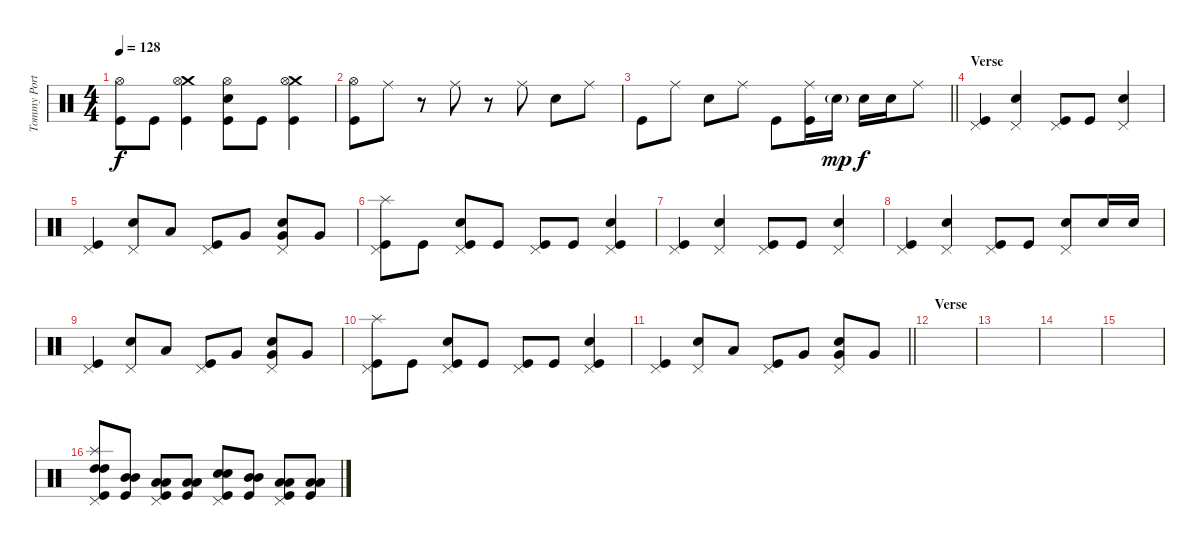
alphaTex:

\track ("Tommy Portimo - Drums" "Tommy Port") {instrument percussion}
\staff {score}
\articulation defaults
\ts (4 4)
\tempo 128
\clef neutral
\ks c
("Hi-Hat (open)" "Kick (hit)").8{dy f} "Kick (hit)".8 ("Crash medium (hit)" "Hi-Hat (open)" "Kick (hit)").4 ("Hi-Hat (open)" "Electric Snare (hit)" "Kick (hit)").8 "Kick (hit)".8 ("Crash medium (hit)" "Hi-Hat (open)" "Kick (hit)").4 |
("Hi-Hat (open)" "Kick (hit)").8 "Ride (middle)".8 r.8 "Ride (middle)".8 r.8 "Ride (middle)".8 "Electric Snare (hit)".8 "Ride (middle)".8 |
\barLineRight lightlight "Kick (hit)".8 "Ride (middle)".8 "Electric Snare (hit)".8 "Ride (middle)".8 "Kick (hit)".8
("Ride (middle)" "Kick (hit)").16 "Electric Snare (hit)"{g}.16{dy mp} "Electric Snare (hit)".16{dy f} "Electric Snare (hit)".16 "Ride (middle)".8 |
\section ("" "Verse")
("Pedal Hi-Hat (hit)" "Kick (hit)").4 ("Pedal Hi-Hat (hit)" "Electric Snare (hit)").4 ("Pedal Hi-Hat (hit)" "Kick (hit)").8 "Kick (hit)".8 ("Pedal Hi-Hat (hit)" "Electric Snare (hit)").4 |
("Pedal Hi-Hat (hit)" "Kick (hit)").4 ("Pedal Hi-Hat (hit)" "Electric Snare (hit)").8 "Low Tom (hit)".8 ("Pedal Hi-Hat (hit)" "Kick (hit)").8 "Very Low Tom (hit)".8 ("Pedal Hi-Hat (hit)" "Very Low Tom (hit)" "Electric Snare (hit)").8 "Very Low Tom (hit)".8 |
("Splash (hit)" "Pedal Hi-Hat (hit)" "Kick (hit)").8 "Kick (hit)".8 ("Pedal Hi-Hat (hit)" "Electric Snare (hit)" "Kick (hit)").8 "Kick (hit)".8 ("Pedal Hi-Hat (hit)" "Kick (hit)").8 "Kick (hit)".8 ("Pedal Hi-Hat (hit)" "Electric Snare (hit)" "Kick (hit)").4 |
("Pedal Hi-Hat (hit)" "Kick (hit)").4 ("Pedal Hi-Hat (hit)" "Electric Snare (hit)").4 ("Pedal Hi-Hat (hit)" "Kick (hit)").8 "Kick (hit)".8 ("Pedal Hi-Hat (hit)" "Electric Snare (hit)").4 |
("Pedal Hi-Hat (hit)" "Kick (hit)").4 ("Pedal Hi-Hat (hit)" "Electric Snare (hit)").4 ("Pedal Hi-Hat (hit)" "Kick (hit)").8 "Kick (hit)".8 ("Pedal Hi-Hat (hit)" "Electric Snare (hit)").8 "Electric Snare (hit)".16 "Electric Snare (hit)".16 |
("Pedal Hi-Hat (hit)" "Kick (hit)").4 ("Pedal Hi-Hat (hit)" "Electric Snare (hit)").8 "Low Tom (hit)".8 ("Pedal Hi-Hat (hit)" "Kick (hit)").8 "Very Low Tom (hit)".8 ("Pedal Hi-Hat (hit)" "Very Low Tom (hit)" "Electric Snare (hit)").8 "Very Low Tom (hit)".8 |
("Splash (hit)" "Pedal Hi-Hat (hit)" "Kick (hit)").8 "Kick (hit)".8 ("Pedal Hi-Hat (hit)" "Electric Snare (hit)" "Kick (hit)").8 "Kick (hit)".8 ("Pedal Hi-Hat (hit)" "Kick (hit)").8 "Kick (hit)".8 ("Pedal Hi-Hat (hit)" "Electric Snare (hit)" "Kick (hit)").4 |
\barLineRight lightlight
("Pedal Hi-Hat (hit)" "Kick (hit)").4 ("Pedal Hi-Hat (hit)" "Electric Snare (hit)").8 "Low Tom (hit)".8 ("Pedal Hi-Hat (hit)" "Kick (hit)").8 "Very Low Tom (hit)".8 ("Pedal Hi-Hat (hit)" "Very Low Tom (hit)" "Electric Snare (hit)").8 "Very Low Tom (hit)".8 |
\section ("" "Verse")
|
|
|
|
("Splash (hit)" "Pedal Hi-Hat (hit)" "High Tom (hit)" "High Tom (hit)" "Kick (hit)").8 ("Mid Tom (hit)" "Mid Tom (hit)" "Kick (hit)").8 ("Pedal Hi-Hat (hit)" "Low Tom (hit)" "Low Tom (hit)" "Kick (hit)").8 ("Low Tom (hit)" "Low Tom (hit)" "Kick (hit)").8 ("Pedal Hi-Hat (hit)" "Electric Snare (hit)" "Electric Snare (hit)" "Kick (hit)").8 ("Mid Tom (hit)" "Mid Tom (hit)" "Kick (hit)").8 ("Pedal Hi-Hat (hit)" "Low Tom (hit)" "Low Tom (hit)" "Kick (hit)").8 ("Low Tom (hit)" "Low Tom (hit)" "Kick (hit)").8
